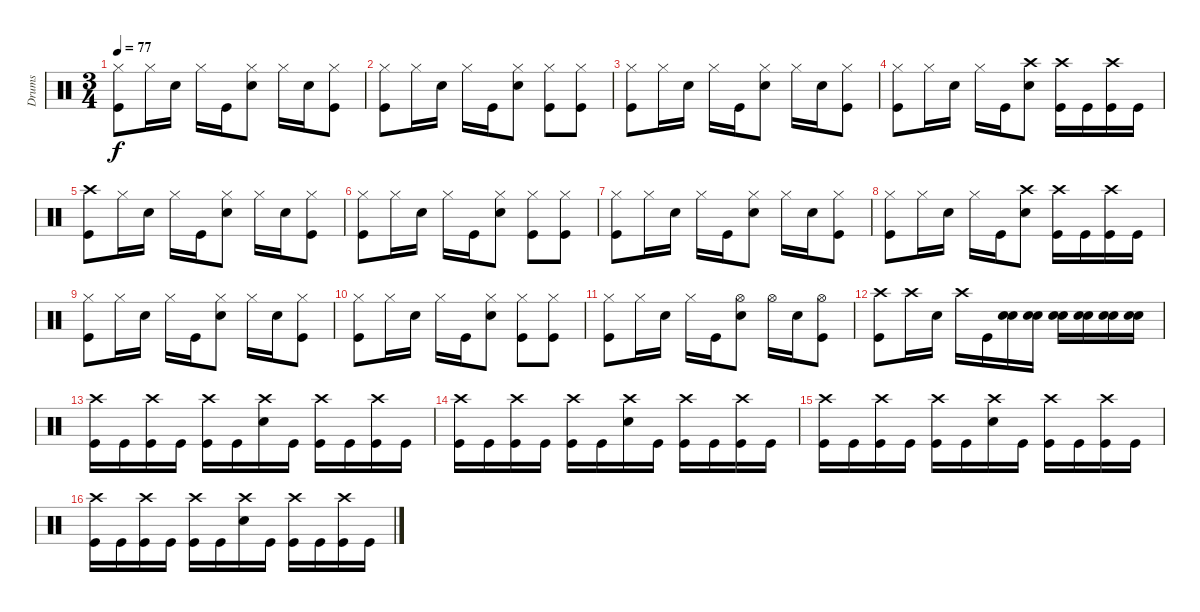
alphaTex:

\track ("Drums" "Drums") {instrument percussion}
\staff {score}
\articulation defaults
\ts (3 4)
\tempo 77
\clef neutral
\ks c
("Hi-Hat (closed)" "Kick (hit)").8{dy f} "Hi-Hat (closed)".16 "Snare (hit) 2".16 "Hi-Hat (closed)".16 "Kick (hit)".16 ("Hi-Hat (closed)" "Snare (hit) 2").8 "Hi-Hat (closed)".16 "Snare (hit) 2".16 ("Hi-Hat (closed)" "Kick (hit)").8 |
("Hi-Hat (closed)" "Kick (hit)").8 "Hi-Hat (closed)".16 "Snare (hit) 2".16 "Hi-Hat (closed)".16 "Kick (hit)".16 ("Hi-Hat (closed)" "Snare (hit) 2").8 ("Hi-Hat (closed)" "Kick (hit)").8 ("Hi-Hat (closed)" "Kick (hit)").8 |
("Hi-Hat (closed)" "Kick (hit)").8 "Hi-Hat (closed)".16 "Snare (hit) 2".16 "Hi-Hat (closed)".16 "Kick (hit)".16 ("Hi-Hat (closed)" "Snare (hit) 2").8 "Hi-Hat (closed)".16 "Snare (hit) 2".16 ("Hi-Hat (closed)" "Kick (hit)").8 |
("Hi-Hat (closed)" "Kick (hit)").8 "Hi-Hat (closed)".16 "Snare (hit) 2".16 "Hi-Hat (closed)".16 "Kick (hit)".16 ("Crash high (hit)" "Snare (hit) 2").8 ("Crash high (hit)" "Kick (hit)").16 "Kick (hit)".16 ("Crash high (hit)" "Kick (hit)").16 "Kick (hit)".16 |
("Crash high (hit)" "Kick (hit)").8 "Hi-Hat (closed)".16 "Snare (hit) 2".16 "Hi-Hat (closed)".16 "Kick (hit)".16 ("Hi-Hat (closed)" "Snare (hit) 2").8 "Hi-Hat (closed)".16 "Snare (hit) 2".16 ("Hi-Hat (closed)" "Kick (hit)").8 |
("Hi-Hat (closed)" "Kick (hit)").8 "Hi-Hat (closed)".16 "Snare (hit) 2".16 "Hi-Hat (closed)".16 "Kick (hit)".16 ("Hi-Hat (closed)" "Snare (hit) 2").8 ("Hi-Hat (closed)" "Kick (hit)").8 ("Hi-Hat (closed)" "Kick (hit)").8 |
("Hi-Hat (closed)" "Kick (hit)").8 "Hi-Hat (closed)".16 "Snare (hit) 2".16 "Hi-Hat (closed)".16 "Kick (hit)".16 ("Hi-Hat (closed)" "Snare (hit) 2").8 "Hi-Hat (closed)".16 "Snare (hit) 2".16 ("Hi-Hat (closed)" "Kick (hit)").8 |
("Hi-Hat (closed)" "Kick (hit)").8 "Hi-Hat (closed)".16 "Snare (hit) 2".16 "Hi-Hat (closed)".16 "Kick (hit)".16 ("Crash high (hit)" "Snare (hit) 2").8 ("Crash high (hit)" "Kick (hit)").16 "Kick (hit)".16 ("Crash high (hit)" "Kick (hit)").16 "Kick (hit)".16 |
("Hi-Hat (closed)" "Kick (hit)").8 "Hi-Hat (closed)".16 "Snare (hit) 2".16 "Hi-Hat (closed)".16 "Kick (hit)".16 ("Hi-Hat (closed)" "Snare (hit) 2").8 "Hi-Hat (closed)".16 "Snare (hit) 2".16 ("Hi-Hat (closed)" "Kick (hit)").8 |
("Hi-Hat (closed)" "Kick (hit)").8 "Hi-Hat (closed)".16 "Snare (hit) 2".16 "Hi-Hat (closed)".16 "Kick (hit)".16 ("Hi-Hat (closed)" "Snare (hit) 2").8 ("Hi-Hat (closed)" "Kick (hit)").8 ("Hi-Hat (closed)" "Kick (hit)").8 |
("Hi-Hat (closed)" "Kick (hit)").8 "Hi-Hat (closed)".16 "Snare (hit) 2".16 "Hi-Hat (closed)".16 "Kick (hit)".16 ("Hi-Hat (open)" "Snare (hit) 2").8 "Hi-Hat (open)".16 "Snare (hit) 2".16 ("Hi-Hat (open)" "Kick (hit)").8 |
("Crash high (hit)" "Kick (hit)").8 "Crash high (hit)".16 "Snare (hit) 2".16 "Crash high (hit)".16 "Kick (hit)".16 ("Snare (hit) 2" "Snare (hit) 2").16 ("Snare (hit) 2" "Snare (hit) 2").16 ("Snare (hit) 2" "Snare (hit) 2").16 ("Snare (hit) 2" "Snare (hit) 2").16 ("Snare (hit) 2" "Snare (hit) 2").16 ("Snare (hit) 2" "Snare (hit) 2").16 |
("Crash high (hit)" "Kick (hit)").16 "Kick (hit)".16 ("Crash high (hit)" "Kick (hit)").16 "Kick (hit)".16 ("Crash high (hit)" "Kick (hit)").16 "Kick (hit)".16 ("Crash high (hit)" "Snare (hit) 2").16 "Kick (hit)".16 ("Crash high (hit)" "Kick (hit)").16 "Kick (hit)".16 ("Crash high (hit)" "Kick (hit)").16 "Kick (hit)".16 |
("Crash high (hit)" "Kick (hit)").16 "Kick (hit)".16 ("Crash high (hit)" "Kick (hit)").16 "Kick (hit)".16 ("Crash high (hit)" "Kick (hit)").16 "Kick (hit)".16 ("Crash high (hit)" "Snare (hit) 2").16 "Kick (hit)".16 ("Crash high (hit)" "Kick (hit)").16 "Kick (hit)".16 ("Crash high (hit)" "Kick (hit)").16 "Kick (hit)".16 |
("Crash high (hit)" "Kick (hit)").16 "Kick (hit)".16 ("Crash high (hit)" "Kick (hit)").16 "Kick (hit)".16 ("Crash high (hit)" "Kick (hit)").16 "Kick (hit)".16 ("Crash high (hit)" "Snare (hit) 2").16 "Kick (hit)".16 ("Crash high (hit)" "Kick (hit)").16 "Kick (hit)".16 ("Crash high (hit)" "Kick (hit)").16 "Kick (hit)".16 |
("Crash high (hit)" "Kick (hit)").16 "Kick (hit)".16 ("Crash high (hit)" "Kick (hit)").16 "Kick (hit)".16 ("Crash high (hit)" "Kick (hit)").16 "Kick (hit)".16 ("Crash high (hit)" "Snare (hit) 2").16 "Kick (hit)".16 ("Crash high (hit)" "Kick (hit)").16 "Kick (hit)".16 ("Crash high (hit)" "Kick (hit)").16 "Kick (hit)".16
